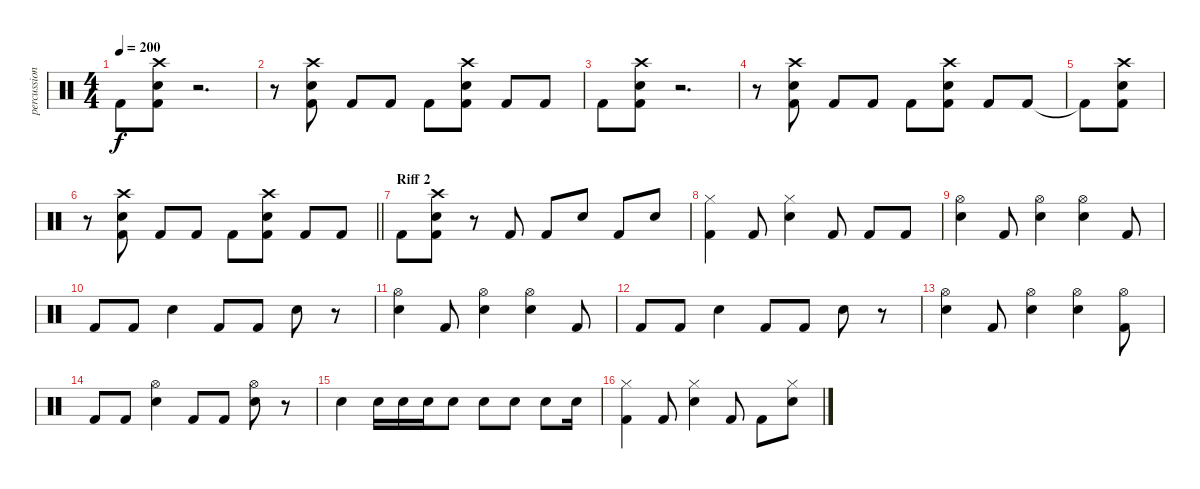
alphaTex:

\track ("percussion" "percussion") {instrument percussion}
\staff {score}
\articulation defaults
\ts (4 4)
\tempo 200
\clef neutral
\ks c "Kick (hit) 2".8{dy f}
("Kick (hit) 2" "Electric Snare (hit)" "Crash high (hit)").8 r.2{d} |
r.8 ("Kick (hit) 2" "Electric Snare (hit)" "Crash high (hit)").8 "Kick (hit) 2".8 "Kick (hit) 2".8 "Kick (hit) 2".8 ("Kick (hit) 2" "Electric Snare (hit)" "Crash high (hit)").8 "Kick (hit) 2".8 "Kick (hit) 2".8 |
"Kick (hit) 2".8 ("Kick (hit) 2" "Electric Snare (hit)" "Crash high (hit)").8 r.2{d} |
r.8 ("Kick (hit) 2" "Electric Snare (hit)" "Crash high (hit)").8 "Kick (hit) 2".8 "Kick (hit) 2".8 "Kick (hit) 2".8 ("Kick (hit) 2" "Electric Snare (hit)" "Crash high (hit)").8 "Kick (hit) 2".8 "Kick (hit) 2".8 |
"Kick (hit) 2"{t}.8 ("Kick (hit) 2" "Electric Snare (hit)" "Crash high (hit)").8 |
\barLineRight lightlight
r.8 ("Kick (hit) 2" "Electric Snare (hit)" "Crash high (hit)").8 "Kick (hit) 2".8 "Kick (hit) 2".8 "Kick (hit) 2".8 ("Kick (hit) 2" "Electric Snare (hit)" "Crash high (hit)").8 "Kick (hit) 2".8 "Kick (hit) 2".8 |
\section ("" "Riff 2")
"Kick (hit) 2".8 ("Kick (hit) 2" "Electric Snare (hit)" "Crash high (hit)").8 r.8 "Kick (hit) 2".8 "Kick (hit) 2".8 "Electric Snare (hit)".8 "Kick (hit) 2".8 "Electric Snare (hit)".8 |
("Kick (hit) 2" "Hi-Hat (closed)").4 "Kick (hit) 2".8 ("Electric Snare (hit)" "Hi-Hat (closed)").4 "Kick (hit) 2".8 "Kick (hit) 2".8 "Kick (hit) 2".8 |
("Electric Snare (hit)" "Hi-Hat (open)").4 "Kick (hit) 2".8 ("Electric Snare (hit)" "Hi-Hat (open)").4 ("Electric Snare (hit)" "Hi-Hat (open)").4 "Kick (hit) 2".8 |
"Kick (hit) 2".8 "Kick (hit) 2".8 "Electric Snare (hit)".4 "Kick (hit) 2".8 "Kick (hit) 2".8 "Electric Snare (hit)".8 r.8 |
("Electric Snare (hit)" "Hi-Hat (open)").4 "Kick (hit) 2".8 ("Electric Snare (hit)" "Hi-Hat (open)").4 ("Electric Snare (hit)" "Hi-Hat (open)").4 "Kick (hit) 2".8 |
"Kick (hit) 2".8 "Kick (hit) 2".8 "Electric Snare (hit)".4 "Kick (hit) 2".8 "Kick (hit) 2".8 "Electric Snare (hit)".8 r.8 |
("Electric Snare (hit)" "Hi-Hat (open)").4 "Kick (hit) 2".8 ("Electric Snare (hit)" "Hi-Hat (open)").4 ("Electric Snare (hit)" "Hi-Hat (open)").4 ("Kick (hit) 2" "Hi-Hat (open)").8 |
"Kick (hit) 2".8 "Kick (hit) 2".8 ("Electric Snare (hit)" "Hi-Hat (open)").4 "Kick (hit) 2".8 "Kick (hit) 2".8 ("Electric Snare (hit)" "Hi-Hat (open)").8 r.8 |
"Electric Snare (hit)".4 "Electric Snare (hit)".16 "Electric Snare (hit)".16 "Electric Snare (hit)".16 "Electric Snare (hit)".8 "Electric Snare (hit)".8 "Electric Snare (hit)".8 "Electric Snare (hit)".8 "Electric Snare (hit)".16 |
("Kick (hit) 2" "Hi-Hat (closed)").4 "Kick (hit) 2".8 ("Electric Snare (hit)" "Hi-Hat (closed)").4 "Kick (hit) 2".8 "Kick (hit) 2".8 ("Electric Snare (hit)" "Hi-Hat (closed)").8
